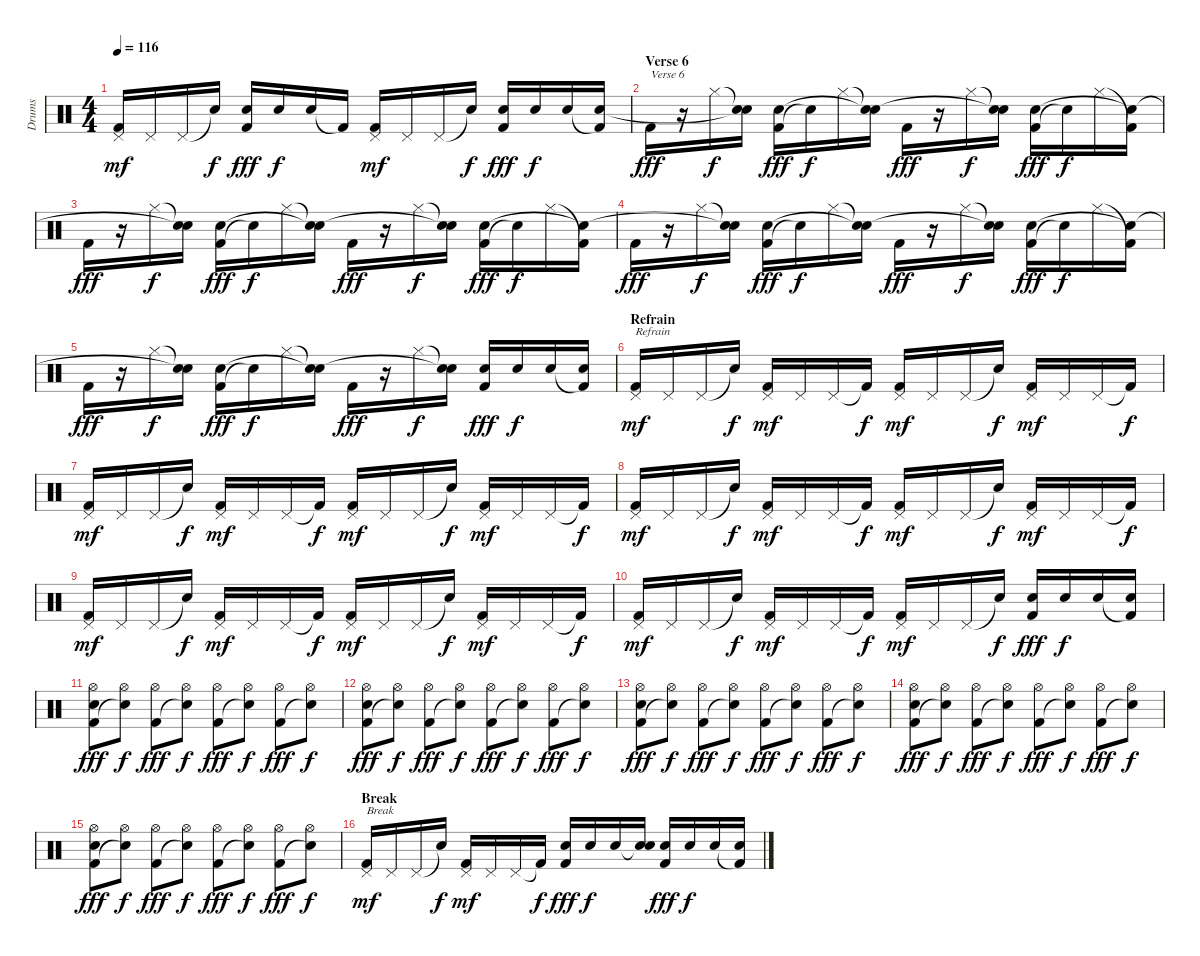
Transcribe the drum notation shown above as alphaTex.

\track ("Drums" "Drums") {instrument percussion}
\staff {score}
\articulation defaults
\ts (4 4)
\tempo 116
\clef neutral
\ks c
("Kick (hit) 2" "Pedal Hi-Hat (hit)").16{dy mf} "Pedal Hi-Hat (hit)".16 "Pedal Hi-Hat (hit)".16 "Snare (hit)"{t}.16{dy f} ("Kick (hit) 2" "Electric Snare (hit)").16{dy fff} "Electric Snare (hit)".16{dy f} "Electric Snare (hit)".16 "Kick (hit) 2"{t}.16 ("Kick (hit) 2" "Pedal Hi-Hat (hit)").16{dy mf} "Pedal Hi-Hat (hit)".16 "Pedal Hi-Hat (hit)".16 "Snare (hit)"{t}.16{dy f} ("Kick (hit) 2" "Electric Snare (hit)").16{dy fff} "Electric Snare (hit)".16{dy f} "Electric Snare (hit)".16 ("Kick (hit) 2"{t} "Electric Snare (hit)").16 |
\section ("" "Verse 6")
"Kick (hit) 2".16{txt "Verse 6" dy fff} r.16 "Hi-Hat (closed)".16{dy f} ("Snare (hit)"{t} "Snare (hit) 2"{t}).16 ("Kick (hit) 2" "Electric Snare (hit)").16{dy fff} "Snare (hit)"{t}.16{dy f} "Hi-Hat (closed)".16 ("Snare (hit)"{t} "Snare (hit)"{t}).16 "Kick (hit) 2".16{dy fff} r.16 "Hi-Hat (closed)".16{dy f} ("Snare (hit)"{t} "Snare (hit)"{t}).16 ("Kick (hit) 2" "Electric Snare (hit)").16{dy fff} "Snare (hit)"{t}.16{dy f} "Hi-Hat (closed)".16 ("Kick (hit) 2"{t} "Snare (hit) 2"{t}).16 |
"Kick (hit) 2".16{dy fff} r.16 "Hi-Hat (closed)".16{dy f} ("Snare (hit)"{t} "Snare (hit) 2"{t}).16 ("Kick (hit) 2" "Electric Snare (hit)").16{dy fff} "Snare (hit)"{t}.16{dy f} "Hi-Hat (closed)".16 ("Snare (hit)"{t} "Snare (hit)"{t}).16 "Kick (hit) 2".16{dy fff} r.16 "Hi-Hat (closed)".16{dy f} ("Snare (hit)"{t} "Snare (hit)"{t}).16 ("Kick (hit) 2" "Electric Snare (hit)").16{dy fff} "Snare (hit)"{t}.16{dy f} "Hi-Hat (closed)".16 ("Kick (hit) 2"{t} "Snare (hit) 2"{t}).16 |
"Kick (hit) 2".16{dy fff} r.16 "Hi-Hat (closed)".16{dy f} ("Snare (hit)"{t} "Snare (hit) 2"{t}).16 ("Kick (hit) 2" "Electric Snare (hit)").16{dy fff} "Snare (hit)"{t}.16{dy f} "Hi-Hat (closed)".16 ("Snare (hit)"{t} "Snare (hit)"{t}).16 "Kick (hit) 2".16{dy fff} r.16 "Hi-Hat (closed)".16{dy f} ("Snare (hit)"{t} "Snare (hit)"{t}).16 ("Kick (hit) 2" "Electric Snare (hit)").16{dy fff} "Snare (hit)"{t}.16{dy f} "Hi-Hat (closed)".16 ("Kick (hit) 2"{t} "Snare (hit) 2"{t}).16 |
"Kick (hit) 2".16{dy fff} r.16 "Hi-Hat (closed)".16{dy f} ("Snare (hit)"{t} "Snare (hit) 2"{t}).16 ("Kick (hit) 2" "Electric Snare (hit)").16{dy fff} "Snare (hit)"{t}.16{dy f} "Hi-Hat (closed)".16 ("Snare (hit)"{t} "Snare (hit)"{t}).16 "Kick (hit) 2".16{dy fff} r.16 "Hi-Hat (closed)".16{dy f} ("Snare (hit)"{t} "Snare (hit)"{t}).16 ("Kick (hit) 2" "Electric Snare (hit)").16{dy fff} "Electric Snare (hit)".16{dy f} "Electric Snare (hit)".16 ("Kick (hit) 2"{t} "Electric Snare (hit)").16 |
\section ("" "Refrain")
("Kick (hit) 2" "Pedal Hi-Hat (hit)").16{txt "Refrain" dy mf} "Pedal Hi-Hat (hit)".16 "Pedal Hi-Hat (hit)".16 "Snare (hit)"{t}.16{dy f} ("Kick (hit) 2" "Pedal Hi-Hat (hit)").16{dy mf} "Pedal Hi-Hat (hit)".16 "Pedal Hi-Hat (hit)".16 "Kick (hit) 2"{t}.16{dy f} ("Kick (hit) 2" "Pedal Hi-Hat (hit)").16{dy mf} "Pedal Hi-Hat (hit)".16 "Pedal Hi-Hat (hit)".16 "Snare (hit)"{t}.16{dy f} ("Kick (hit) 2" "Pedal Hi-Hat (hit)").16{dy mf} "Pedal Hi-Hat (hit)".16 "Pedal Hi-Hat (hit)".16 "Kick (hit) 2"{t}.16{dy f} |
("Kick (hit) 2" "Pedal Hi-Hat (hit)").16{dy mf} "Pedal Hi-Hat (hit)".16 "Pedal Hi-Hat (hit)".16 "Snare (hit)"{t}.16{dy f} ("Kick (hit) 2" "Pedal Hi-Hat (hit)").16{dy mf} "Pedal Hi-Hat (hit)".16 "Pedal Hi-Hat (hit)".16 "Kick (hit) 2"{t}.16{dy f} ("Kick (hit) 2" "Pedal Hi-Hat (hit)").16{dy mf} "Pedal Hi-Hat (hit)".16 "Pedal Hi-Hat (hit)".16 "Snare (hit)"{t}.16{dy f} ("Kick (hit) 2" "Pedal Hi-Hat (hit)").16{dy mf} "Pedal Hi-Hat (hit)".16 "Pedal Hi-Hat (hit)".16 "Kick (hit) 2"{t}.16{dy f} |
("Kick (hit) 2" "Pedal Hi-Hat (hit)").16{dy mf} "Pedal Hi-Hat (hit)".16 "Pedal Hi-Hat (hit)".16 "Snare (hit)"{t}.16{dy f} ("Kick (hit) 2" "Pedal Hi-Hat (hit)").16{dy mf} "Pedal Hi-Hat (hit)".16 "Pedal Hi-Hat (hit)".16 "Kick (hit) 2"{t}.16{dy f} ("Kick (hit) 2" "Pedal Hi-Hat (hit)").16{dy mf} "Pedal Hi-Hat (hit)".16 "Pedal Hi-Hat (hit)".16 "Snare (hit)"{t}.16{dy f} ("Kick (hit) 2" "Pedal Hi-Hat (hit)").16{dy mf} "Pedal Hi-Hat (hit)".16 "Pedal Hi-Hat (hit)".16 "Kick (hit) 2"{t}.16{dy f} |
("Kick (hit) 2" "Pedal Hi-Hat (hit)").16{dy mf} "Pedal Hi-Hat (hit)".16 "Pedal Hi-Hat (hit)".16 "Snare (hit)"{t}.16{dy f} ("Kick (hit) 2" "Pedal Hi-Hat (hit)").16{dy mf} "Pedal Hi-Hat (hit)".16 "Pedal Hi-Hat (hit)".16 "Kick (hit) 2"{t}.16{dy f} ("Kick (hit) 2" "Pedal Hi-Hat (hit)").16{dy mf} "Pedal Hi-Hat (hit)".16 "Pedal Hi-Hat (hit)".16 "Snare (hit)"{t}.16{dy f} ("Kick (hit) 2" "Pedal Hi-Hat (hit)").16{dy mf} "Pedal Hi-Hat (hit)".16 "Pedal Hi-Hat (hit)".16 "Kick (hit) 2"{t}.16{dy f} |
("Kick (hit) 2" "Pedal Hi-Hat (hit)").16{dy mf} "Pedal Hi-Hat (hit)".16 "Pedal Hi-Hat (hit)".16 "Snare (hit)"{t}.16{dy f} ("Kick (hit) 2" "Pedal Hi-Hat (hit)").16{dy mf} "Pedal Hi-Hat (hit)".16 "Pedal Hi-Hat (hit)".16 "Kick (hit) 2"{t}.16{dy f} ("Kick (hit) 2" "Pedal Hi-Hat (hit)").16{dy mf} "Pedal Hi-Hat (hit)".16 "Pedal Hi-Hat (hit)".16 "Snare (hit)"{t}.16{dy f} ("Kick (hit) 2" "Electric Snare (hit)").16{dy fff} "Electric Snare (hit)".16{dy f} "Electric Snare (hit)".16 ("Kick (hit) 2"{t} "Electric Snare (hit)").16 |
("Kick (hit) 2" "Hi-Hat (open)" "Electric Snare (hit)").8{dy fff} ("Snare (hit)"{t} "Hi-Hat (open)").8{dy f} ("Kick (hit) 2" "Hi-Hat (open)").8{dy fff} ("Snare (hit)"{t} "Hi-Hat (open)").8{dy f} ("Kick (hit) 2" "Hi-Hat (open)").8{dy fff} ("Snare (hit)"{t} "Hi-Hat (open)").8{dy f} ("Kick (hit) 2" "Hi-Hat (open)").8{dy fff} ("Snare (hit)"{t} "Hi-Hat (open)").8{dy f} |
("Kick (hit) 2" "Hi-Hat (open)" "Electric Snare (hit)").8{dy fff} ("Snare (hit)"{t} "Hi-Hat (open)").8{dy f} ("Kick (hit) 2" "Hi-Hat (open)").8{dy fff} ("Snare (hit)"{t} "Hi-Hat (open)").8{dy f} ("Kick (hit) 2" "Hi-Hat (open)").8{dy fff} ("Snare (hit)"{t} "Hi-Hat (open)").8{dy f} ("Kick (hit) 2" "Hi-Hat (open)").8{dy fff} ("Snare (hit)"{t} "Hi-Hat (open)").8{dy f} |
("Kick (hit) 2" "Hi-Hat (open)" "Electric Snare (hit)").8{dy fff} ("Snare (hit)"{t} "Hi-Hat (open)").8{dy f} ("Kick (hit) 2" "Hi-Hat (open)").8{dy fff} ("Snare (hit)"{t} "Hi-Hat (open)").8{dy f} ("Kick (hit) 2" "Hi-Hat (open)").8{dy fff} ("Snare (hit)"{t} "Hi-Hat (open)").8{dy f} ("Kick (hit) 2" "Hi-Hat (open)").8{dy fff} ("Snare (hit)"{t} "Hi-Hat (open)").8{dy f} |
("Kick (hit) 2" "Hi-Hat (open)" "Electric Snare (hit)").8{dy fff} ("Snare (hit)"{t} "Hi-Hat (open)").8{dy f} ("Kick (hit) 2" "Hi-Hat (open)").8{dy fff} ("Snare (hit)"{t} "Hi-Hat (open)").8{dy f} ("Kick (hit) 2" "Hi-Hat (open)").8{dy fff} ("Snare (hit)"{t} "Hi-Hat (open)").8{dy f} ("Kick (hit) 2" "Hi-Hat (open)").8{dy fff} ("Snare (hit)"{t} "Hi-Hat (open)").8{dy f} |
("Kick (hit) 2" "Hi-Hat (open)" "Electric Snare (hit)").8{dy fff} ("Snare (hit)"{t} "Hi-Hat (open)").8{dy f} ("Kick (hit) 2" "Hi-Hat (open)").8{dy fff} ("Snare (hit)"{t} "Hi-Hat (open)").8{dy f} ("Kick (hit) 2" "Hi-Hat (open)").8{dy fff} ("Snare (hit)"{t} "Hi-Hat (open)").8{dy f} ("Kick (hit) 2" "Hi-Hat (open)").8{dy fff} ("Snare (hit)"{t} "Hi-Hat (open)").8{dy f} |
\section ("" "Break")
("Kick (hit) 2" "Pedal Hi-Hat (hit)").16{txt "Break" dy mf} "Pedal Hi-Hat (hit)".16 "Pedal Hi-Hat (hit)".16 "Snare (hit)"{t}.16{dy f} ("Kick (hit) 2" "Pedal Hi-Hat (hit)").16{dy mf} "Pedal Hi-Hat (hit)".16 "Pedal Hi-Hat (hit)".16 "Kick (hit) 2"{t}.16{dy f} ("Kick (hit) 2" "Electric Snare (hit)").16{dy fff} "Electric Snare (hit)".16{dy f} "Electric Snare (hit)".16 ("Snare (hit)"{t} "Electric Snare (hit)").16 ("Kick (hit) 2" "Electric Snare (hit)").16{dy fff} "Electric Snare (hit)".16{dy f} "Electric Snare (hit)".16 ("Kick (hit) 2"{t} "Electric Snare (hit)").16
